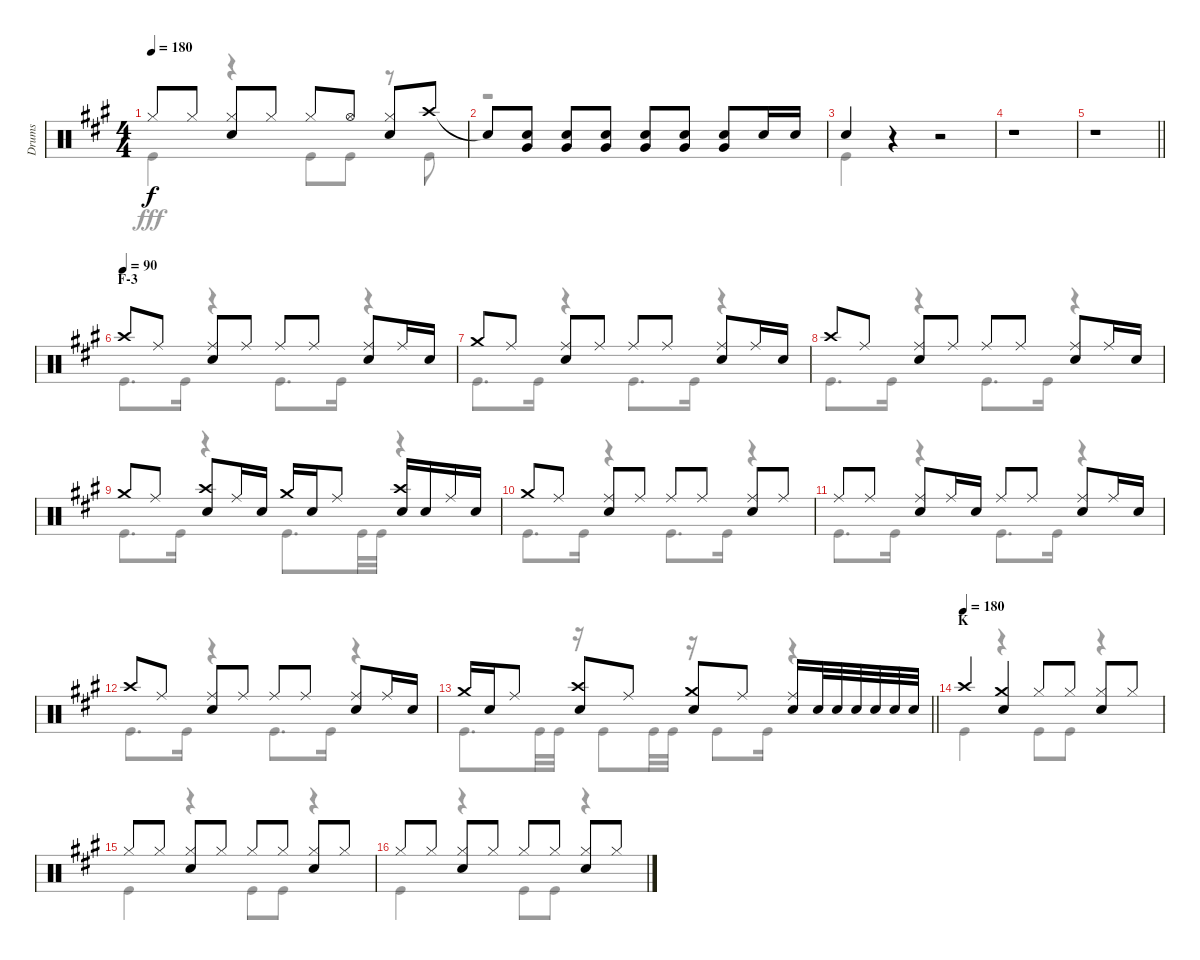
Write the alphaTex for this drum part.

\track ("Drums" "Drums") {instrument percussion}
\staff {score}
\articulation defaults
\voice
\ts (4 4)
\tempo 180
\clef neutral
\ks a "Hi-Hat (closed)".8{dy f} "Hi-Hat (closed)".8
("Hi-Hat (closed)" "Snare (hit) 2").8 "Hi-Hat (closed)".8 "Hi-Hat (closed)".8 "Hi-Hat (open)".8 ("Hi-Hat (closed)" "Snare (hit) 2").8 "Crash high (hit)".8 |
"Snare (hit)"{t}.8 ("Snare (hit) 2" "Very Low Tom (hit)").8 ("Snare (hit) 2" "Very Low Tom (hit)").8 ("Snare (hit) 2" "Very Low Tom (hit)").8 ("Snare (hit) 2" "Very Low Tom (hit)").8 ("Snare (hit) 2" "Very Low Tom (hit)").8 ("Snare (hit) 2" "Very Low Tom (hit)").8 "Snare (hit) 2".16 "Snare (hit) 2".16 |
"Snare (hit) 2".4 r.4 r.2 |
r.1 |
\barLineRight lightlight
r.1 |
\section ("" "F-3")
\tempo (90)
"Crash high (hit)".8 "Ride (middle)".8 ("Ride (middle)" "Snare (hit) 2").8 "Ride (middle)".8 "Ride (middle)".8 "Ride (middle)".8 ("Ride (middle)" "Snare (hit) 2").8 "Ride (middle)".16 "Snare (hit) 2".16 |
"Crash medium (hit)".8 "Ride (middle)".8 ("Ride (middle)" "Snare (hit) 2").8 "Ride (middle)".8 "Ride (middle)".8 "Ride (middle)".8 ("Ride (middle)" "Snare (hit) 2").8 "Ride (middle)".16 "Snare (hit) 2".16 |
"Crash high (hit)".8 "Ride (middle)".8 ("Ride (middle)" "Snare (hit) 2").8 "Ride (middle)".8 "Ride (middle)".8 "Ride (middle)".8 ("Ride (middle)" "Snare (hit) 2").8 "Ride (middle)".16 "Snare (hit) 2".16 |
"Crash medium (hit)".8 "Ride (middle)".8 ("Crash high (hit)" "Snare (hit) 2").8 "Ride (middle)".16 "Snare (hit) 2".16 "Crash medium (hit)".16 "Snare (hit) 2".16 "Ride (middle)".8 ("Crash high (hit)" "Snare (hit) 2").16 "Snare (hit) 2".16 "Ride (middle)".16 "Snare (hit) 2".16 |
"Crash medium (hit)".8 "Ride (middle)".8 ("Ride (middle)" "Snare (hit) 2").8 "Ride (middle)".8 "Ride (middle)".8 "Ride (middle)".8 ("Ride (middle)" "Snare (hit) 2").8 "Ride (middle)".8 |
"Ride (middle)".8 "Ride (middle)".8 ("Ride (middle)" "Snare (hit) 2").8 "Ride (middle)".16 "Snare (hit) 2".16 "Ride (middle)".8 "Ride (middle)".8 ("Ride (middle)" "Snare (hit) 2").8 "Ride (middle)".16 "Snare (hit) 2".16 |
"Crash high (hit)".8 "Ride (middle)".8 ("Ride (middle)" "Snare (hit) 2").8 "Ride (middle)".8 "Ride (middle)".8 "Ride (middle)".8 ("Ride (middle)" "Snare (hit) 2").8 "Ride (middle)".16 "Snare (hit) 2".16 |
\barLineRight lightlight "Crash medium (hit)".16 "Snare (hit) 2".16 "Ride (middle)".8
("Crash high (hit)" "Snare (hit) 2").8 "Ride (middle)".8 ("Crash medium (hit)" "Snare (hit) 2").8 "Ride (middle)".8 ("Ride (middle)" "Snare (hit) 2").16 "Snare (hit) 2".32 "Snare (hit) 2".32 "Snare (hit) 2".32 "Snare (hit) 2".32 "Snare (hit) 2".32 "Snare (hit) 2".32 |
\section ("" "K")
\tempo (180)
"Crash high (hit)".4 ("Crash medium (hit)" "Snare (hit) 2").4 "Hi-Hat (closed)".8 "Hi-Hat (closed)".8 ("Hi-Hat (closed)" "Snare (hit) 2").8 "Hi-Hat (closed)".8 |
"Hi-Hat (closed)".8 "Hi-Hat (closed)".8 ("Hi-Hat (closed)" "Snare (hit) 2").8 "Hi-Hat (closed)".8 "Hi-Hat (closed)".8 "Hi-Hat (closed)".8 ("Hi-Hat (closed)" "Snare (hit) 2").8 "Hi-Hat (closed)".8 |
"Hi-Hat (closed)".8 "Hi-Hat (closed)".8 ("Hi-Hat (closed)" "Snare (hit) 2").8 "Hi-Hat (closed)".8 "Hi-Hat (closed)".8 "Hi-Hat (closed)".8 ("Hi-Hat (closed)" "Snare (hit) 2").8 "Hi-Hat (closed)".8
\voice
\clef neutral
\ottava regular
\simile none
\ks a "Kick (hit)".4{dy fff}
r.4 "Kick (hit)".8 "Kick (hit)".8 r.8 "Kick (hit)".8 |
r.1 |
"Kick (hit)".4 r.4 r.2 |
r.1 |
\barLineRight lightlight
r.1 |
"Kick (hit)".8{d} "Kick (hit)".16 r.4 "Kick (hit)".8{d} "Kick (hit)".16 r.4 |
"Kick (hit)".8{d} "Kick (hit)".16 r.4 "Kick (hit)".8{d} "Kick (hit)".16 r.4 |
"Kick (hit)".8{d} "Kick (hit)".16 r.4 "Kick (hit)".8{d} "Kick (hit)".16 r.4 |
"Kick (hit)".8{d} "Kick (hit)".16 r.4 "Kick (hit)".8{d} "Kick (hit)".32 "Kick (hit)".32 r.4 |
"Kick (hit)".8{d} "Kick (hit)".16 r.4 "Kick (hit)".8{d} "Kick (hit)".16 r.4 |
"Kick (hit)".8{d} "Kick (hit)".16 r.4 "Kick (hit)".8{d} "Kick (hit)".16 r.4 |
"Kick (hit)".8{d} "Kick (hit)".16 r.4 "Kick (hit)".8{d} "Kick (hit)".16 r.4 |
\barLineRight lightlight "Kick (hit)".8{d} "Kick (hit)".32 "Kick (hit)".32
r.16 "Kick (hit)".8 "Kick (hit)".32 "Kick (hit)".32 r.16 "Kick (hit)".8 "Kick (hit)".16 r.4 |
"Kick (hit)".4 r.4 "Kick (hit)".8 "Kick (hit)".8 r.4 |
"Kick (hit)".4 r.4 "Kick (hit)".8 "Kick (hit)".8 r.4 |
"Kick (hit)".4 r.4 "Kick (hit)".8 "Kick (hit)".8 r.4
